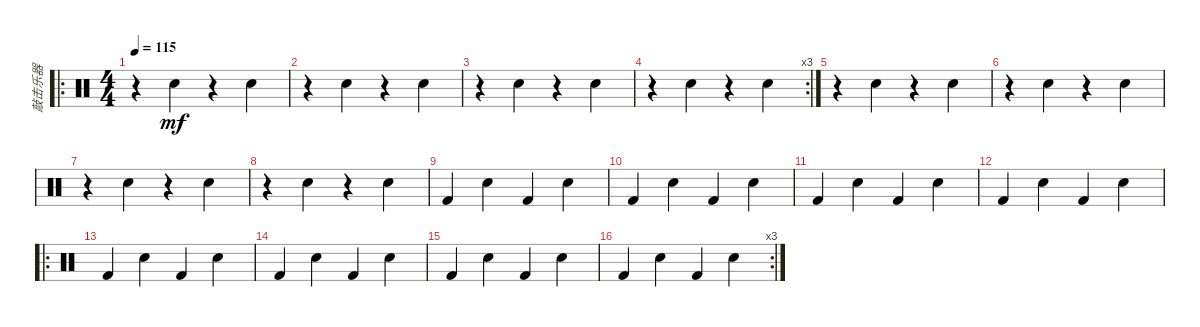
\track ("敲击乐器" "敲击乐器") {instrument percussion}
\staff {score}
\articulation defaults
\ro
\ts (4 4)
\tempo 115
\clef neutral
\ks c
r.4{dy mf} "Hand Clap (hit)".4 r.4 "Hand Clap (hit)".4 |
r.4 "Hand Clap (hit)".4 r.4 "Hand Clap (hit)".4 |
r.4 "Hand Clap (hit)".4 r.4 "Hand Clap (hit)".4 |
\rc 3
r.4 "Hand Clap (hit)".4 r.4 "Hand Clap (hit)".4 |
r.4 "Hand Clap (hit)".4 r.4 "Hand Clap (hit)".4 |
r.4 "Hand Clap (hit)".4 r.4 "Hand Clap (hit)".4 |
r.4 "Hand Clap (hit)".4 r.4 "Hand Clap (hit)".4 |
r.4 "Hand Clap (hit)".4 r.4 "Hand Clap (hit)".4 |
"Kick (hit) 2".4 "Hand Clap (hit)".4 "Kick (hit) 2".4 "Hand Clap (hit)".4 |
"Kick (hit) 2".4 "Hand Clap (hit)".4 "Kick (hit) 2".4 "Hand Clap (hit)".4 |
"Kick (hit) 2".4 "Hand Clap (hit)".4 "Kick (hit) 2".4 "Hand Clap (hit)".4 |
"Kick (hit) 2".4 "Hand Clap (hit)".4 "Kick (hit) 2".4 "Hand Clap (hit)".4 |
\ro "Kick (hit) 2".4 "Hand Clap (hit)".4 "Kick (hit) 2".4 "Hand Clap (hit)".4
|
"Kick (hit) 2".4 "Hand Clap (hit)".4 "Kick (hit) 2".4 "Hand Clap (hit)".4 |
"Kick (hit) 2".4 "Hand Clap (hit)".4 "Kick (hit) 2".4 "Hand Clap (hit)".4 |
\rc 3 "Kick (hit) 2".4 "Hand Clap (hit)".4 "Kick (hit) 2".4 "Hand Clap (hit)".4
